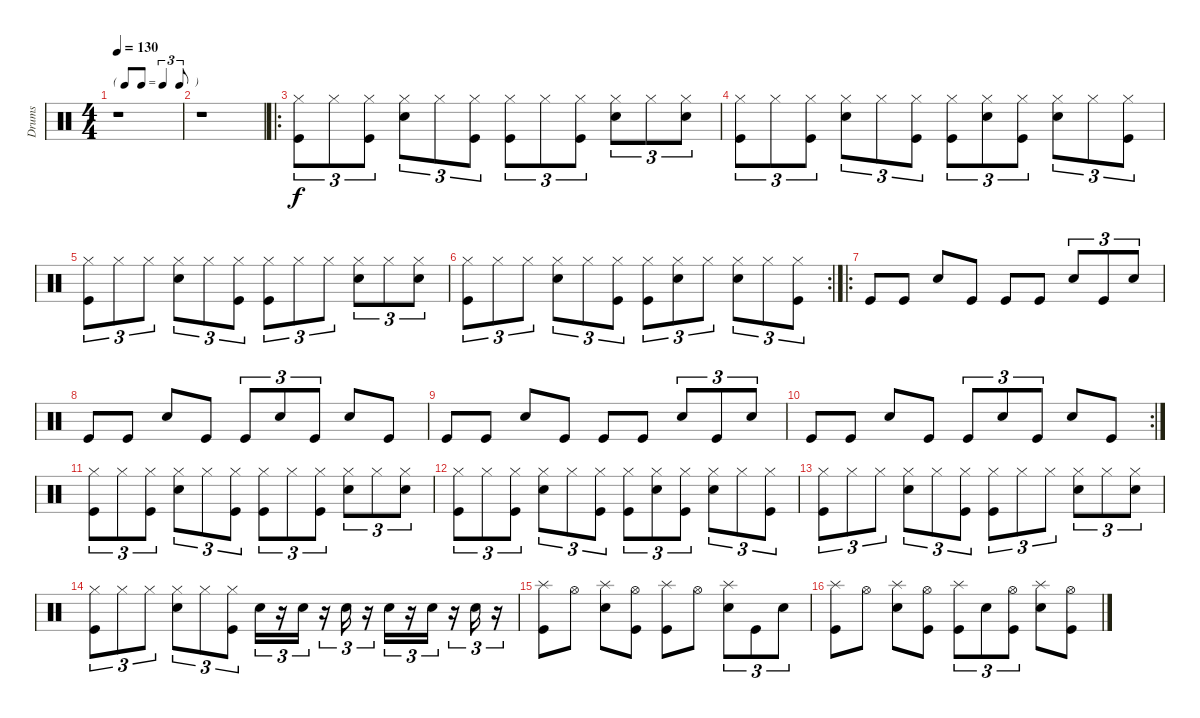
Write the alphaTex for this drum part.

\track ("Drums" "Drums") {instrument percussion}
\staff {score}
\articulation defaults
\ts (4 4)
\tf triplet8th
\tempo 130
\clef neutral
\ks c
r.1{dy f} |
r.1 |
\ro
("Hi-Hat (closed)" "Kick (hit)").8{tu (3 2)} "Hi-Hat (closed)".8{tu (3 2)} ("Hi-Hat (closed)" "Kick (hit)").8{tu (3 2)} ("Snare (hit) 2" "Hi-Hat (closed)").8{tu (3 2)} "Hi-Hat (closed)".8{tu (3 2)} ("Hi-Hat (closed)" "Kick (hit)").8{tu (3 2)} ("Hi-Hat (closed)" "Kick (hit)").8{tu (3 2)} "Hi-Hat (closed)".8{tu (3 2)} ("Hi-Hat (closed)" "Kick (hit)").8{tu (3 2)} ("Snare (hit) 2" "Hi-Hat (closed)").8{tu (3 2)} "Hi-Hat (closed)".8{tu (3 2)} ("Snare (hit) 2" "Hi-Hat (closed)").8{tu (3 2)} |
("Hi-Hat (closed)" "Kick (hit)").8{tu (3 2)} "Hi-Hat (closed)".8{tu (3 2)} ("Hi-Hat (closed)" "Kick (hit)").8{tu (3 2)} ("Snare (hit) 2" "Hi-Hat (closed)").8{tu (3 2)} "Hi-Hat (closed)".8{tu (3 2)} ("Hi-Hat (closed)" "Kick (hit)").8{tu (3 2)} ("Hi-Hat (closed)" "Kick (hit)").8{tu (3 2)} ("Snare (hit) 2" "Hi-Hat (closed)").8{tu (3 2)} ("Hi-Hat (closed)" "Kick (hit)").8{tu (3 2)} ("Snare (hit) 2" "Hi-Hat (closed)").8{tu (3 2)} "Hi-Hat (closed)".8{tu (3 2)} ("Hi-Hat (closed)" "Kick (hit)").8{tu (3 2)} |
("Hi-Hat (closed)" "Kick (hit)").8{tu (3 2)} "Hi-Hat (closed)".8{tu (3 2)} "Hi-Hat (closed)".8{tu (3 2)} ("Snare (hit) 2" "Hi-Hat (closed)").8{tu (3 2)} "Hi-Hat (closed)".8{tu (3 2)} ("Hi-Hat (closed)" "Kick (hit)").8{tu (3 2)} ("Hi-Hat (closed)" "Kick (hit)").8{tu (3 2)} "Hi-Hat (closed)".8{tu (3 2)} "Hi-Hat (closed)".8{tu (3 2)} ("Snare (hit) 2" "Hi-Hat (closed)").8{tu (3 2)} "Hi-Hat (closed)".8{tu (3 2)} ("Snare (hit) 2" "Hi-Hat (closed)").8{tu (3 2)} |
\rc 2
("Hi-Hat (closed)" "Kick (hit)").8{tu (3 2)} "Hi-Hat (closed)".8{tu (3 2)} "Hi-Hat (closed)".8{tu (3 2)} ("Snare (hit) 2" "Hi-Hat (closed)").8{tu (3 2)} "Hi-Hat (closed)".8{tu (3 2)} ("Hi-Hat (closed)" "Kick (hit)").8{tu (3 2)} ("Hi-Hat (closed)" "Kick (hit)").8{tu (3 2)} ("Snare (hit) 2" "Hi-Hat (closed)").8{tu (3 2)} "Hi-Hat (closed)".8{tu (3 2)} ("Snare (hit) 2" "Hi-Hat (closed)").8{tu (3 2)} "Hi-Hat (closed)".8{tu (3 2)} ("Hi-Hat (closed)" "Kick (hit)").8{tu (3 2)} |
\ro "Kick (hit)".8 "Kick (hit)".8 "Snare (hit) 2".8 "Kick (hit)".8 "Kick (hit)".8 "Kick (hit)".8 "Snare (hit) 2".8{tu (3 2)} "Kick (hit)".8{tu (3 2)} "Snare (hit) 2".8{tu (3 2)}
|
"Kick (hit)".8 "Kick (hit)".8 "Snare (hit) 2".8 "Kick (hit)".8 "Kick (hit)".8{tu (3 2)} "Snare (hit) 2".8{tu (3 2)} "Kick (hit)".8{tu (3 2)} "Snare (hit) 2".8 "Kick (hit)".8 |
"Kick (hit)".8 "Kick (hit)".8 "Snare (hit) 2".8 "Kick (hit)".8 "Kick (hit)".8 "Kick (hit)".8 "Snare (hit) 2".8{tu (3 2)} "Kick (hit)".8{tu (3 2)} "Snare (hit) 2".8{tu (3 2)} |
\rc 2 "Kick (hit)".8 "Kick (hit)".8 "Snare (hit) 2".8 "Kick (hit)".8 "Kick (hit)".8{tu (3 2)} "Snare (hit) 2".8{tu (3 2)} "Kick (hit)".8{tu (3 2)} "Snare (hit) 2".8 "Kick (hit)".8
|
("Hi-Hat (closed)" "Kick (hit)").8{tu (3 2)} "Hi-Hat (closed)".8{tu (3 2)} ("Hi-Hat (closed)" "Kick (hit)").8{tu (3 2)} ("Snare (hit) 2" "Hi-Hat (closed)").8{tu (3 2)} "Hi-Hat (closed)".8{tu (3 2)} ("Hi-Hat (closed)" "Kick (hit)").8{tu (3 2)} ("Hi-Hat (closed)" "Kick (hit)").8{tu (3 2)} "Hi-Hat (closed)".8{tu (3 2)} ("Hi-Hat (closed)" "Kick (hit)").8{tu (3 2)} ("Snare (hit) 2" "Hi-Hat (closed)").8{tu (3 2)} "Hi-Hat (closed)".8{tu (3 2)} ("Snare (hit) 2" "Hi-Hat (closed)").8{tu (3 2)} |
("Hi-Hat (closed)" "Kick (hit)").8{tu (3 2)} "Hi-Hat (closed)".8{tu (3 2)} ("Hi-Hat (closed)" "Kick (hit)").8{tu (3 2)} ("Snare (hit) 2" "Hi-Hat (closed)").8{tu (3 2)} "Hi-Hat (closed)".8{tu (3 2)} ("Hi-Hat (closed)" "Kick (hit)").8{tu (3 2)} ("Hi-Hat (closed)" "Kick (hit)").8{tu (3 2)} ("Snare (hit) 2" "Hi-Hat (closed)").8{tu (3 2)} ("Hi-Hat (closed)" "Kick (hit)").8{tu (3 2)} ("Snare (hit) 2" "Hi-Hat (closed)").8{tu (3 2)} "Hi-Hat (closed)".8{tu (3 2)} ("Hi-Hat (closed)" "Kick (hit)").8{tu (3 2)} |
("Hi-Hat (closed)" "Kick (hit)").8{tu (3 2)} "Hi-Hat (closed)".8{tu (3 2)} "Hi-Hat (closed)".8{tu (3 2)} ("Snare (hit) 2" "Hi-Hat (closed)").8{tu (3 2)} "Hi-Hat (closed)".8{tu (3 2)} ("Hi-Hat (closed)" "Kick (hit)").8{tu (3 2)} ("Hi-Hat (closed)" "Kick (hit)").8{tu (3 2)} "Hi-Hat (closed)".8{tu (3 2)} "Hi-Hat (closed)".8{tu (3 2)} ("Snare (hit) 2" "Hi-Hat (closed)").8{tu (3 2)} "Hi-Hat (closed)".8{tu (3 2)} ("Snare (hit) 2" "Hi-Hat (closed)").8{tu (3 2)} |
("Hi-Hat (closed)" "Kick (hit)").8{tu (3 2)} "Hi-Hat (closed)".8{tu (3 2)} "Hi-Hat (closed)".8{tu (3 2)} ("Snare (hit) 2" "Hi-Hat (closed)").8{tu (3 2)} "Hi-Hat (closed)".8{tu (3 2)} ("Hi-Hat (closed)" "Kick (hit)").8{tu (3 2)} "Electric Snare (hit)".16{tu (3 2)} r.16{tu (3 2)} "Electric Snare (hit)".16{tu (3 2)} r.16{tu (3 2)} "Electric Snare (hit)".16{tu (3 2)} r.16{tu (3 2)} "Electric Snare (hit)".16{tu (3 2)} r.16{tu (3 2)} "Electric Snare (hit)".16{tu (3 2)} r.16{tu (3 2)} "Electric Snare (hit)".16{tu (3 2)} r.16{tu (3 2)} |
("Splash (hit)" "Kick (hit)").8 "Hi-Hat (open)".8 ("Splash (hit)" "Electric Snare (hit)").8 ("Hi-Hat (open)" "Kick (hit)").8 ("Splash (hit)" "Kick (hit)").8 "Hi-Hat (open)".8 ("Splash (hit)" "Electric Snare (hit)").8{tu (3 2)} "Kick (hit)".8{tu (3 2)} "Electric Snare (hit)".8{tu (3 2)} |
("Splash (hit)" "Kick (hit)").8 "Hi-Hat (open)".8 ("Splash (hit)" "Electric Snare (hit)").8 ("Hi-Hat (open)" "Kick (hit)").8 ("Splash (hit)" "Kick (hit)").8{tu (3 2)} "Electric Snare (hit)".8{tu (3 2)} ("Hi-Hat (open)" "Kick (hit)").8{tu (3 2)} ("Splash (hit)" "Electric Snare (hit)").8 ("Hi-Hat (open)" "Kick (hit)").8
